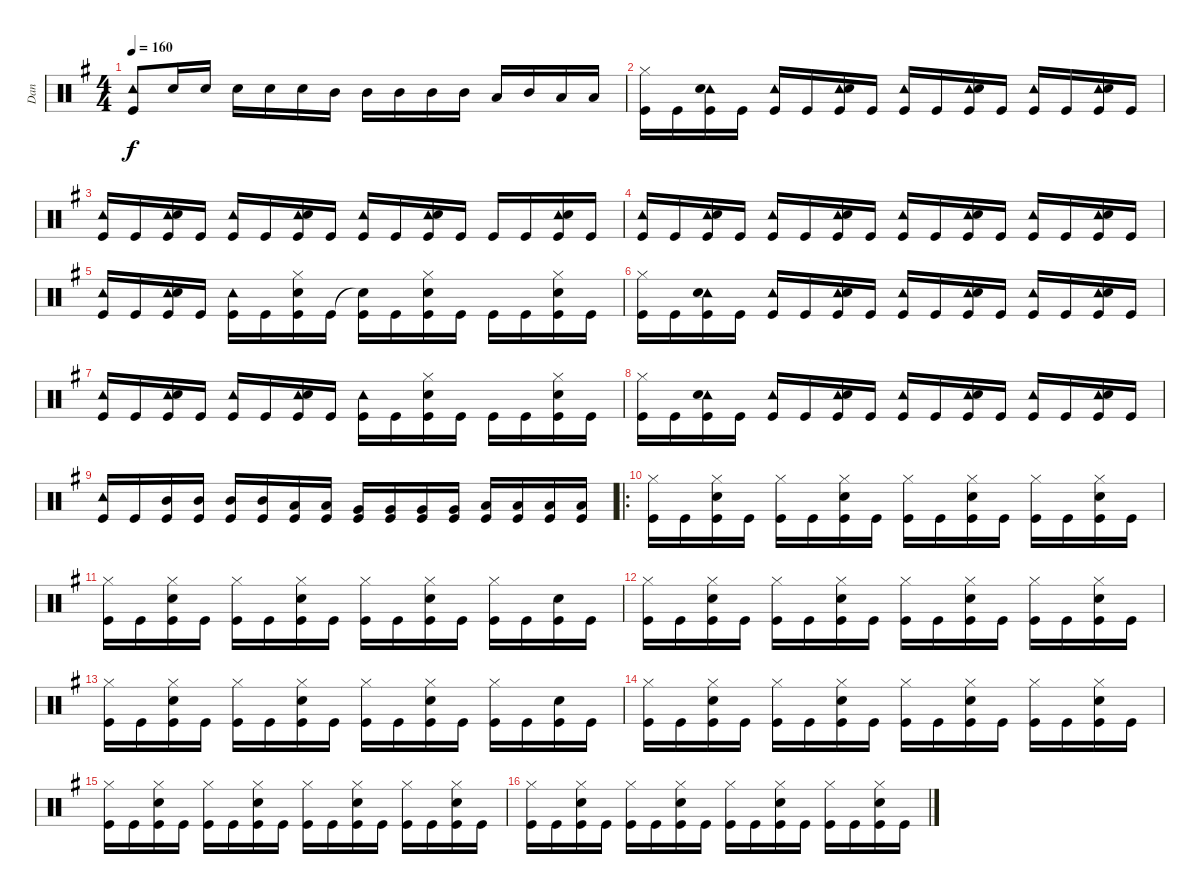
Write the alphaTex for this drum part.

\track ("Dan" "Dan") {instrument percussion}
\staff {score}
\articulation defaults
\ts (4 4)
\tempo 160
\clef neutral
\ks g
("Tambourine (hit)" "Kick (hit)").8{dy f} "Snare (hit) 2".16 "Snare (hit) 2".16 "Snare (hit) 2".16 "Snare (hit) 2".16 "Snare (hit) 2".16 "Mid Tom (hit)".16 "Mid Tom (hit)".16 "Mid Tom (hit)".16 "Mid Tom (hit)".16 "Mid Tom (hit)".16 "Low Tom (hit)".16 "Mid Tom (hit)".16 "Low Tom (hit)".16 "Low Tom (hit)".16 |
("Hi-Hat (closed)" "Kick (hit)").16 "Kick (hit)".16 ("Tambourine (hit)" "Snare (hit) 2" "Kick (hit)").16 "Kick (hit)".16 ("Tambourine (hit)" "Kick (hit)").16 "Kick (hit)".16 ("Tambourine (hit)" "Snare (hit) 2" "Kick (hit)").16 "Kick (hit)".16 ("Tambourine (hit)" "Kick (hit)").16 "Kick (hit)".16 ("Tambourine (hit)" "Snare (hit) 2" "Kick (hit)").16 "Kick (hit)".16 ("Tambourine (hit)" "Kick (hit)").16 "Kick (hit)".16 ("Tambourine (hit)" "Snare (hit) 2" "Kick (hit)").16 "Kick (hit)".16 |
("Tambourine (hit)" "Kick (hit)").16 "Kick (hit)".16 ("Tambourine (hit)" "Snare (hit) 2" "Kick (hit)").16 "Kick (hit)".16 ("Tambourine (hit)" "Kick (hit)").16 "Kick (hit)".16 ("Tambourine (hit)" "Snare (hit) 2" "Kick (hit)").16 "Kick (hit)".16 ("Tambourine (hit)" "Kick (hit)").16 "Kick (hit)".16 ("Tambourine (hit)" "Snare (hit) 2" "Kick (hit)").16 "Kick (hit)".16 "Kick (hit)".16 "Kick (hit)".16 ("Tambourine (hit)" "Snare (hit) 2" "Kick (hit)").16 "Kick (hit)".16 |
("Tambourine (hit)" "Kick (hit)").16 "Kick (hit)".16 ("Tambourine (hit)" "Snare (hit) 2" "Kick (hit)").16 "Kick (hit)".16 ("Tambourine (hit)" "Kick (hit)").16 "Kick (hit)".16 ("Tambourine (hit)" "Snare (hit) 2" "Kick (hit)").16 "Kick (hit)".16 ("Tambourine (hit)" "Kick (hit)").16 "Kick (hit)".16 ("Tambourine (hit)" "Snare (hit) 2" "Kick (hit)").16 "Kick (hit)".16 ("Tambourine (hit)" "Kick (hit)").16 "Kick (hit)".16 ("Tambourine (hit)" "Snare (hit) 2" "Kick (hit)").16 "Kick (hit)".16 |
("Tambourine (hit)" "Kick (hit)").16 "Kick (hit)".16 ("Tambourine (hit)" "Snare (hit) 2" "Kick (hit)").16 "Kick (hit)".16 ("Tambourine (hit)" "Kick (hit)").16 "Kick (hit)".16 ("Hi-Hat (closed)" "Snare (hit) 2" "Kick (hit)").16 "Kick (hit)".16 ("Snare (hit)"{t} "Kick (hit)").16 "Kick (hit)".16 ("Hi-Hat (closed)" "Snare (hit) 2" "Kick (hit)").16 "Kick (hit)".16 "Kick (hit)".16 "Kick (hit)".16 ("Hi-Hat (closed)" "Snare (hit) 2" "Kick (hit)").16 "Kick (hit)".16 |
("Hi-Hat (closed)" "Kick (hit)").16 "Kick (hit)".16 ("Tambourine (hit)" "Snare (hit) 2" "Kick (hit)").16 "Kick (hit)".16 ("Tambourine (hit)" "Kick (hit)").16 "Kick (hit)".16 ("Tambourine (hit)" "Snare (hit) 2" "Kick (hit)").16 "Kick (hit)".16 ("Tambourine (hit)" "Kick (hit)").16 "Kick (hit)".16 ("Tambourine (hit)" "Snare (hit) 2" "Kick (hit)").16 "Kick (hit)".16 ("Tambourine (hit)" "Kick (hit)").16 "Kick (hit)".16 ("Tambourine (hit)" "Snare (hit) 2" "Kick (hit)").16 "Kick (hit)".16 |
("Tambourine (hit)" "Kick (hit)").16 "Kick (hit)".16 ("Tambourine (hit)" "Snare (hit) 2" "Kick (hit)").16 "Kick (hit)".16 ("Tambourine (hit)" "Kick (hit)").16 "Kick (hit)".16 ("Tambourine (hit)" "Snare (hit) 2" "Kick (hit)").16 "Kick (hit)".16 ("Tambourine (hit)" "Kick (hit)").16 "Kick (hit)".16 ("Hi-Hat (closed)" "Snare (hit) 2" "Kick (hit)").16 "Kick (hit)".16 "Kick (hit)".16 "Kick (hit)".16 ("Hi-Hat (closed)" "Snare (hit) 2" "Kick (hit)").16 "Kick (hit)".16 |
("Hi-Hat (closed)" "Kick (hit)").16 "Kick (hit)".16 ("Tambourine (hit)" "Snare (hit) 2" "Kick (hit)").16 "Kick (hit)".16 ("Tambourine (hit)" "Kick (hit)").16 "Kick (hit)".16 ("Tambourine (hit)" "Snare (hit) 2" "Kick (hit)").16 "Kick (hit)".16 ("Tambourine (hit)" "Kick (hit)").16 "Kick (hit)".16 ("Tambourine (hit)" "Snare (hit) 2" "Kick (hit)").16 "Kick (hit)".16 ("Tambourine (hit)" "Kick (hit)").16 "Kick (hit)".16 ("Tambourine (hit)" "Snare (hit) 2" "Kick (hit)").16 "Kick (hit)".16 |
("Tambourine (hit)" "Kick (hit)").16 "Kick (hit)".16 ("Mid Tom (hit)" "Kick (hit)").16 ("Mid Tom (hit)" "Kick (hit)").16 ("Mid Tom (hit)" "Kick (hit)").16 ("Mid Tom (hit)" "Kick (hit)").16 ("Low Tom (hit)" "Kick (hit)").16 ("Low Tom (hit)" "Kick (hit)").16 ("Very Low Tom (hit)" "Kick (hit)").16 ("Very Low Tom (hit)" "Kick (hit)").16 ("Very Low Tom (hit)" "Kick (hit)").16 ("Very Low Tom (hit)" "Kick (hit)").16 ("Low Floor Tom (hit)" "Kick (hit)").16 ("Low Floor Tom (hit)" "Kick (hit)").16 ("Low Floor Tom (hit)" "Kick (hit)").16 ("Low Floor Tom (hit)" "Kick (hit)").16 |
\ro
("Hi-Hat (closed)" "Kick (hit)").16 "Kick (hit)".16 ("Hi-Hat (closed)" "Snare (hit) 2" "Kick (hit)").16 "Kick (hit)".16 ("Hi-Hat (closed)" "Kick (hit)").16 "Kick (hit)".16 ("Hi-Hat (closed)" "Snare (hit) 2" "Kick (hit)").16 "Kick (hit)".16 ("Hi-Hat (closed)" "Kick (hit)").16 "Kick (hit)".16 ("Hi-Hat (closed)" "Snare (hit) 2" "Kick (hit)").16 "Kick (hit)".16 ("Hi-Hat (closed)" "Kick (hit)").16 "Kick (hit)".16 ("Hi-Hat (closed)" "Snare (hit) 2" "Kick (hit)").16 "Kick (hit)".16 |
("Hi-Hat (closed)" "Kick (hit)").16 "Kick (hit)".16 ("Hi-Hat (closed)" "Snare (hit) 2" "Kick (hit)").16 "Kick (hit)".16 ("Hi-Hat (closed)" "Kick (hit)").16 "Kick (hit)".16 ("Hi-Hat (closed)" "Snare (hit) 2" "Kick (hit)").16 "Kick (hit)".16 ("Hi-Hat (closed)" "Kick (hit)").16 "Kick (hit)".16 ("Hi-Hat (closed)" "Snare (hit) 2" "Kick (hit)").16 "Kick (hit)".16 ("Hi-Hat (closed)" "Kick (hit)").16 "Kick (hit)".16 ("Snare (hit) 2" "Kick (hit)").16 "Kick (hit)".16 |
("Hi-Hat (closed)" "Kick (hit)").16 "Kick (hit)".16 ("Hi-Hat (closed)" "Snare (hit) 2" "Kick (hit)").16 "Kick (hit)".16 ("Hi-Hat (closed)" "Kick (hit)").16 "Kick (hit)".16 ("Hi-Hat (closed)" "Snare (hit) 2" "Kick (hit)").16 "Kick (hit)".16 ("Hi-Hat (closed)" "Kick (hit)").16 "Kick (hit)".16 ("Hi-Hat (closed)" "Snare (hit) 2" "Kick (hit)").16 "Kick (hit)".16 ("Hi-Hat (closed)" "Kick (hit)").16 "Kick (hit)".16 ("Hi-Hat (closed)" "Snare (hit) 2" "Kick (hit)").16 "Kick (hit)".16 |
("Hi-Hat (closed)" "Kick (hit)").16 "Kick (hit)".16 ("Hi-Hat (closed)" "Snare (hit) 2" "Kick (hit)").16 "Kick (hit)".16 ("Hi-Hat (closed)" "Kick (hit)").16 "Kick (hit)".16 ("Hi-Hat (closed)" "Snare (hit) 2" "Kick (hit)").16 "Kick (hit)".16 ("Hi-Hat (closed)" "Kick (hit)").16 "Kick (hit)".16 ("Hi-Hat (closed)" "Snare (hit) 2" "Kick (hit)").16 "Kick (hit)".16 ("Hi-Hat (closed)" "Kick (hit)").16 "Kick (hit)".16 ("Snare (hit) 2" "Kick (hit)").16 "Kick (hit)".16 |
("Hi-Hat (closed)" "Kick (hit)").16 "Kick (hit)".16 ("Hi-Hat (closed)" "Snare (hit) 2" "Kick (hit)").16 "Kick (hit)".16 ("Hi-Hat (closed)" "Kick (hit)").16 "Kick (hit)".16 ("Hi-Hat (closed)" "Snare (hit) 2" "Kick (hit)").16 "Kick (hit)".16 ("Hi-Hat (closed)" "Kick (hit)").16 "Kick (hit)".16 ("Hi-Hat (closed)" "Snare (hit) 2" "Kick (hit)").16 "Kick (hit)".16 ("Hi-Hat (closed)" "Kick (hit)").16 "Kick (hit)".16 ("Hi-Hat (closed)" "Snare (hit) 2" "Kick (hit)").16 "Kick (hit)".16 |
("Hi-Hat (closed)" "Kick (hit)").16 "Kick (hit)".16 ("Hi-Hat (closed)" "Snare (hit) 2" "Kick (hit)").16 "Kick (hit)".16 ("Hi-Hat (closed)" "Kick (hit)").16 "Kick (hit)".16 ("Hi-Hat (closed)" "Snare (hit) 2" "Kick (hit)").16 "Kick (hit)".16 ("Hi-Hat (closed)" "Kick (hit)").16 "Kick (hit)".16 ("Hi-Hat (closed)" "Snare (hit) 2" "Kick (hit)").16 "Kick (hit)".16 ("Hi-Hat (closed)" "Kick (hit)").16 "Kick (hit)".16 ("Hi-Hat (closed)" "Snare (hit) 2" "Kick (hit)").16 "Kick (hit)".16 |
("Hi-Hat (closed)" "Kick (hit)").16 "Kick (hit)".16 ("Hi-Hat (closed)" "Snare (hit) 2" "Kick (hit)").16 "Kick (hit)".16 ("Hi-Hat (closed)" "Kick (hit)").16 "Kick (hit)".16 ("Hi-Hat (closed)" "Snare (hit) 2" "Kick (hit)").16 "Kick (hit)".16 ("Hi-Hat (closed)" "Kick (hit)").16 "Kick (hit)".16 ("Hi-Hat (closed)" "Snare (hit) 2" "Kick (hit)").16 "Kick (hit)".16 ("Hi-Hat (closed)" "Kick (hit)").16 "Kick (hit)".16 ("Hi-Hat (closed)" "Snare (hit) 2" "Kick (hit)").16 "Kick (hit)".16
